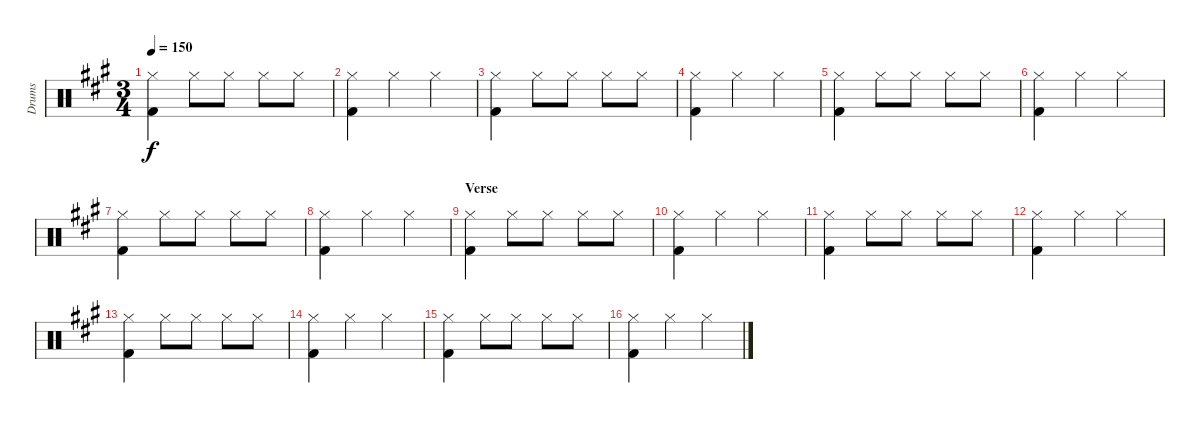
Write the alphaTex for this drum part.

\track ("Drums" "Drums") {instrument percussion}
\staff {score}
\articulation defaults
\ts (3 4)
\tempo 150
\clef neutral
\ks f#minor
("Kick (hit) 2" "Hi-Hat (closed)").4{dy f} "Hi-Hat (closed)".8 "Hi-Hat (closed)".8 "Hi-Hat (closed)".8 "Hi-Hat (closed)".8 |
("Kick (hit) 2" "Hi-Hat (closed)").4 "Hi-Hat (closed)".4 "Hi-Hat (closed)".4 |
("Kick (hit) 2" "Hi-Hat (closed)").4 "Hi-Hat (closed)".8 "Hi-Hat (closed)".8 "Hi-Hat (closed)".8 "Hi-Hat (closed)".8 |
("Kick (hit) 2" "Hi-Hat (closed)").4 "Hi-Hat (closed)".4 "Hi-Hat (closed)".4 |
("Kick (hit) 2" "Hi-Hat (closed)").4 "Hi-Hat (closed)".8 "Hi-Hat (closed)".8 "Hi-Hat (closed)".8 "Hi-Hat (closed)".8 |
("Kick (hit) 2" "Hi-Hat (closed)").4 "Hi-Hat (closed)".4 "Hi-Hat (closed)".4 |
("Kick (hit) 2" "Hi-Hat (closed)").4 "Hi-Hat (closed)".8 "Hi-Hat (closed)".8 "Hi-Hat (closed)".8 "Hi-Hat (closed)".8 |
("Kick (hit) 2" "Hi-Hat (closed)").4 "Hi-Hat (closed)".4 "Hi-Hat (closed)".4 |
\section ("" "Verse")
("Kick (hit) 2" "Hi-Hat (closed)").4 "Hi-Hat (closed)".8 "Hi-Hat (closed)".8 "Hi-Hat (closed)".8 "Hi-Hat (closed)".8 |
("Kick (hit) 2" "Hi-Hat (closed)").4 "Hi-Hat (closed)".4 "Hi-Hat (closed)".4 |
("Kick (hit) 2" "Hi-Hat (closed)").4 "Hi-Hat (closed)".8 "Hi-Hat (closed)".8 "Hi-Hat (closed)".8 "Hi-Hat (closed)".8 |
("Kick (hit) 2" "Hi-Hat (closed)").4 "Hi-Hat (closed)".4 "Hi-Hat (closed)".4 |
("Kick (hit) 2" "Hi-Hat (closed)").4 "Hi-Hat (closed)".8 "Hi-Hat (closed)".8 "Hi-Hat (closed)".8 "Hi-Hat (closed)".8 |
("Kick (hit) 2" "Hi-Hat (closed)").4 "Hi-Hat (closed)".4 "Hi-Hat (closed)".4 |
("Kick (hit) 2" "Hi-Hat (closed)").4 "Hi-Hat (closed)".8 "Hi-Hat (closed)".8 "Hi-Hat (closed)".8 "Hi-Hat (closed)".8 |
("Kick (hit) 2" "Hi-Hat (closed)").4 "Hi-Hat (closed)".4 "Hi-Hat (closed)".4
